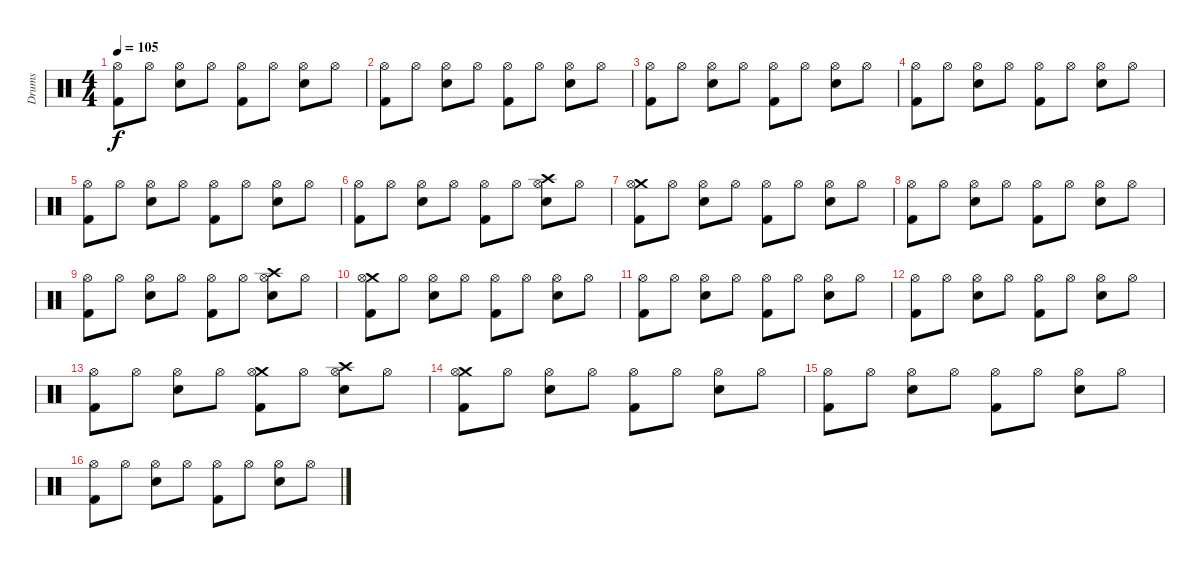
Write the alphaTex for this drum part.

\track ("Drums" "Drums") {instrument percussion}
\staff {score}
\articulation defaults
\ts (4 4)
\tempo 105
\clef neutral
\ks c
("Hi-Hat (open)" "Kick (hit) 2").8{dy f} "Hi-Hat (open)".8 ("Hi-Hat (open)" "Electric Snare (hit)").8 "Hi-Hat (open)".8 ("Hi-Hat (open)" "Kick (hit) 2").8 "Hi-Hat (open)".8 ("Hi-Hat (open)" "Electric Snare (hit)").8 "Hi-Hat (open)".8 |
("Hi-Hat (open)" "Kick (hit) 2").8 "Hi-Hat (open)".8 ("Hi-Hat (open)" "Electric Snare (hit)").8 "Hi-Hat (open)".8 ("Hi-Hat (open)" "Kick (hit) 2").8 "Hi-Hat (open)".8 ("Hi-Hat (open)" "Electric Snare (hit)").8 "Hi-Hat (open)".8 |
("Hi-Hat (open)" "Kick (hit) 2").8 "Hi-Hat (open)".8 ("Hi-Hat (open)" "Electric Snare (hit)").8 "Hi-Hat (open)".8 ("Hi-Hat (open)" "Kick (hit) 2").8 "Hi-Hat (open)".8 ("Hi-Hat (open)" "Electric Snare (hit)").8 "Hi-Hat (open)".8 |
("Hi-Hat (open)" "Kick (hit) 2").8 "Hi-Hat (open)".8 ("Hi-Hat (open)" "Electric Snare (hit)").8 "Hi-Hat (open)".8 ("Hi-Hat (open)" "Kick (hit) 2").8 "Hi-Hat (open)".8 ("Hi-Hat (open)" "Electric Snare (hit)").8 "Hi-Hat (open)".8 |
("Hi-Hat (open)" "Kick (hit) 2").8 "Hi-Hat (open)".8 ("Hi-Hat (open)" "Electric Snare (hit)").8 "Hi-Hat (open)".8 ("Hi-Hat (open)" "Kick (hit) 2").8 "Hi-Hat (open)".8 ("Hi-Hat (open)" "Electric Snare (hit)").8 "Hi-Hat (open)".8 |
("Hi-Hat (open)" "Kick (hit) 2").8 "Hi-Hat (open)".8 ("Hi-Hat (open)" "Electric Snare (hit)").8 "Hi-Hat (open)".8 ("Hi-Hat (open)" "Kick (hit) 2").8 "Hi-Hat (open)".8 ("Crash high (hit)" "Hi-Hat (open)" "Electric Snare (hit)").8 "Hi-Hat (open)".8 |
("Crash medium (hit)" "Hi-Hat (open)" "Kick (hit) 2").8 "Hi-Hat (open)".8 ("Hi-Hat (open)" "Electric Snare (hit)").8 "Hi-Hat (open)".8 ("Hi-Hat (open)" "Kick (hit) 2").8 "Hi-Hat (open)".8 ("Hi-Hat (open)" "Electric Snare (hit)").8 "Hi-Hat (open)".8 |
("Hi-Hat (open)" "Kick (hit) 2").8 "Hi-Hat (open)".8 ("Hi-Hat (open)" "Electric Snare (hit)").8 "Hi-Hat (open)".8 ("Hi-Hat (open)" "Kick (hit) 2").8 "Hi-Hat (open)".8 ("Hi-Hat (open)" "Electric Snare (hit)").8 "Hi-Hat (open)".8 |
("Hi-Hat (open)" "Kick (hit) 2").8 "Hi-Hat (open)".8 ("Hi-Hat (open)" "Electric Snare (hit)").8 "Hi-Hat (open)".8 ("Hi-Hat (open)" "Kick (hit) 2").8 "Hi-Hat (open)".8 ("Crash high (hit)" "Hi-Hat (open)" "Electric Snare (hit)").8 "Hi-Hat (open)".8 |
("Crash medium (hit)" "Hi-Hat (open)" "Kick (hit) 2").8 "Hi-Hat (open)".8 ("Hi-Hat (open)" "Electric Snare (hit)").8 "Hi-Hat (open)".8 ("Hi-Hat (open)" "Kick (hit) 2").8 "Hi-Hat (open)".8 ("Hi-Hat (open)" "Electric Snare (hit)").8 "Hi-Hat (open)".8 |
("Hi-Hat (open)" "Kick (hit) 2").8 "Hi-Hat (open)".8 ("Hi-Hat (open)" "Electric Snare (hit)").8 "Hi-Hat (open)".8 ("Hi-Hat (open)" "Kick (hit) 2").8 "Hi-Hat (open)".8 ("Hi-Hat (open)" "Electric Snare (hit)").8 "Hi-Hat (open)".8 |
("Hi-Hat (open)" "Kick (hit) 2").8 "Hi-Hat (open)".8 ("Hi-Hat (open)" "Electric Snare (hit)").8 "Hi-Hat (open)".8 ("Hi-Hat (open)" "Kick (hit) 2").8 "Hi-Hat (open)".8 ("Hi-Hat (open)" "Electric Snare (hit)").8 "Hi-Hat (open)".8 |
("Hi-Hat (open)" "Kick (hit) 2").8 "Hi-Hat (open)".8 ("Hi-Hat (open)" "Electric Snare (hit)").8 "Hi-Hat (open)".8 ("Crash medium (hit)" "Hi-Hat (open)" "Kick (hit) 2").8 "Hi-Hat (open)".8 ("Crash high (hit)" "Hi-Hat (open)" "Electric Snare (hit)").8 "Hi-Hat (open)".8 |
("Crash medium (hit)" "Hi-Hat (open)" "Kick (hit) 2").8 "Hi-Hat (open)".8 ("Hi-Hat (open)" "Electric Snare (hit)").8 "Hi-Hat (open)".8 ("Hi-Hat (open)" "Kick (hit) 2").8 "Hi-Hat (open)".8 ("Hi-Hat (open)" "Electric Snare (hit)").8 "Hi-Hat (open)".8 |
("Hi-Hat (open)" "Kick (hit) 2").8 "Hi-Hat (open)".8 ("Hi-Hat (open)" "Electric Snare (hit)").8 "Hi-Hat (open)".8 ("Hi-Hat (open)" "Kick (hit) 2").8 "Hi-Hat (open)".8 ("Hi-Hat (open)" "Electric Snare (hit)").8 "Hi-Hat (open)".8 |
("Hi-Hat (open)" "Kick (hit) 2").8 "Hi-Hat (open)".8 ("Hi-Hat (open)" "Electric Snare (hit)").8 "Hi-Hat (open)".8 ("Hi-Hat (open)" "Kick (hit) 2").8 "Hi-Hat (open)".8 ("Hi-Hat (open)" "Electric Snare (hit)").8 "Hi-Hat (open)".8
